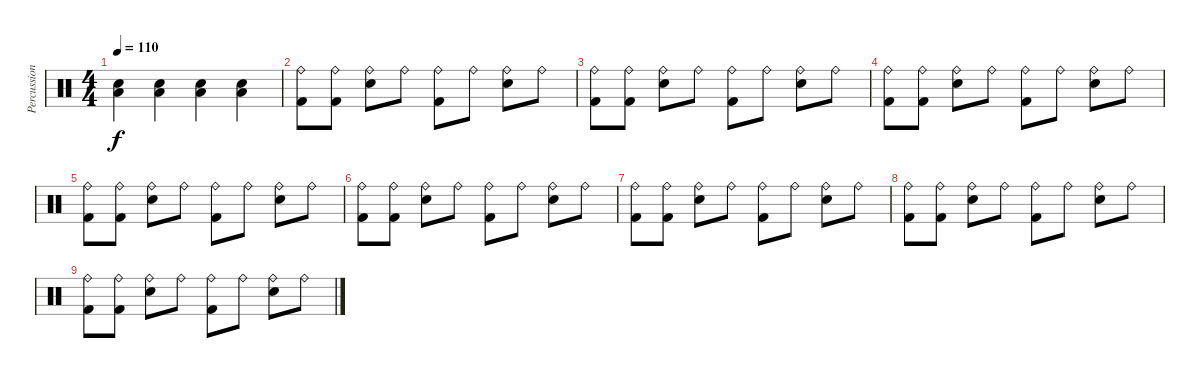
\track ("Percussion" "Percussion") {instrument percussion}
\staff {score}
\articulation defaults
\ts (4 4)
\tempo 110
\clef neutral
\ks c
("Snare (hit) 2" "Low Floor Tom (hit)").4{dy f} ("Snare (hit) 2" "Low Floor Tom (hit)").4 ("Snare (hit) 2" "Low Floor Tom (hit)").4 ("Snare (hit) 2" "Low Floor Tom (hit)").4 |
("Ride (bell)" "Kick (hit) 2").8 ("Ride (bell)" "Kick (hit) 2").8 ("Ride (bell)" "Snare (hit) 2").8 "Ride (bell)".8 ("Ride (bell)" "Kick (hit) 2").8 "Ride (bell)".8 ("Ride (bell)" "Snare (hit) 2").8 "Ride (bell)".8 |
("Ride (bell)" "Kick (hit) 2").8 ("Ride (bell)" "Kick (hit) 2").8 ("Ride (bell)" "Snare (hit) 2").8 "Ride (bell)".8 ("Ride (bell)" "Kick (hit) 2").8 "Ride (bell)".8 ("Ride (bell)" "Snare (hit) 2").8 "Ride (bell)".8 |
("Ride (bell)" "Kick (hit) 2").8 ("Ride (bell)" "Kick (hit) 2").8 ("Ride (bell)" "Snare (hit) 2").8 "Ride (bell)".8 ("Ride (bell)" "Kick (hit) 2").8 "Ride (bell)".8 ("Ride (bell)" "Snare (hit) 2").8 "Ride (bell)".8 |
("Ride (bell)" "Kick (hit) 2").8 ("Ride (bell)" "Kick (hit) 2").8 ("Ride (bell)" "Snare (hit) 2").8 "Ride (bell)".8 ("Ride (bell)" "Kick (hit) 2").8 "Ride (bell)".8 ("Ride (bell)" "Snare (hit) 2").8 "Ride (bell)".8 |
("Ride (bell)" "Kick (hit) 2").8 ("Ride (bell)" "Kick (hit) 2").8 ("Ride (bell)" "Snare (hit) 2").8 "Ride (bell)".8 ("Ride (bell)" "Kick (hit) 2").8 "Ride (bell)".8 ("Ride (bell)" "Snare (hit) 2").8 "Ride (bell)".8 |
("Ride (bell)" "Kick (hit) 2").8 ("Ride (bell)" "Kick (hit) 2").8 ("Ride (bell)" "Snare (hit) 2").8 "Ride (bell)".8 ("Ride (bell)" "Kick (hit) 2").8 "Ride (bell)".8 ("Ride (bell)" "Snare (hit) 2").8 "Ride (bell)".8 |
("Ride (bell)" "Kick (hit) 2").8 ("Ride (bell)" "Kick (hit) 2").8 ("Ride (bell)" "Snare (hit) 2").8 "Ride (bell)".8 ("Ride (bell)" "Kick (hit) 2").8 "Ride (bell)".8 ("Ride (bell)" "Snare (hit) 2").8 "Ride (bell)".8 |
("Ride (bell)" "Kick (hit) 2").8 ("Ride (bell)" "Kick (hit) 2").8 ("Ride (bell)" "Snare (hit) 2").8 "Ride (bell)".8 ("Ride (bell)" "Kick (hit) 2").8 "Ride (bell)".8 ("Ride (bell)" "Snare (hit) 2").8 "Ride (bell)".8
